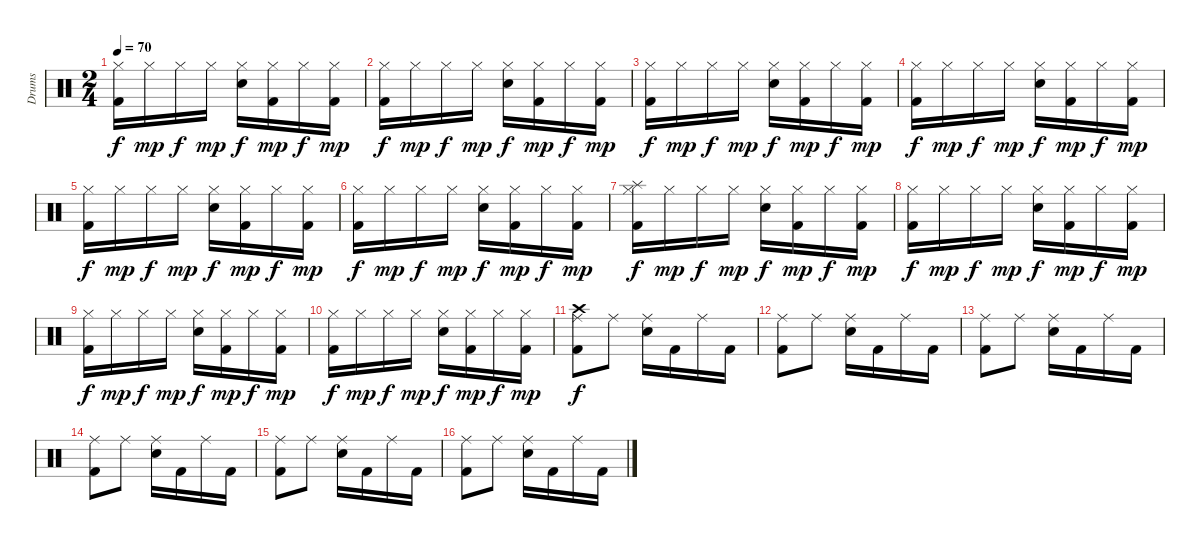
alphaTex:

\track ("Drums" "Drums") {instrument percussion}
\staff {score}
\articulation defaults
\ts (2 4)
\tempo 70
\clef neutral
\ks c
("Hi-Hat (closed)" "Kick (hit) 2").16{dy f} "Hi-Hat (closed)".16{dy mp} "Hi-Hat (closed)".16{dy f} "Hi-Hat (closed)".16{dy mp} ("Hi-Hat (closed)" "Electric Snare (hit)").16{dy f} ("Hi-Hat (closed)" "Kick (hit) 2").16{dy mp} "Hi-Hat (closed)".16{dy f} ("Hi-Hat (closed)" "Kick (hit) 2").16{dy mp} |
("Hi-Hat (closed)" "Kick (hit) 2").16{dy f} "Hi-Hat (closed)".16{dy mp} "Hi-Hat (closed)".16{dy f} "Hi-Hat (closed)".16{dy mp} ("Hi-Hat (closed)" "Electric Snare (hit)").16{dy f} ("Hi-Hat (closed)" "Kick (hit) 2").16{dy mp} "Hi-Hat (closed)".16{dy f} ("Hi-Hat (closed)" "Kick (hit) 2").16{dy mp} |
("Hi-Hat (closed)" "Kick (hit) 2").16{dy f} "Hi-Hat (closed)".16{dy mp} "Hi-Hat (closed)".16{dy f} "Hi-Hat (closed)".16{dy mp} ("Hi-Hat (closed)" "Electric Snare (hit)").16{dy f} ("Hi-Hat (closed)" "Kick (hit) 2").16{dy mp} "Hi-Hat (closed)".16{dy f} ("Hi-Hat (closed)" "Kick (hit) 2").16{dy mp} |
("Hi-Hat (closed)" "Kick (hit) 2").16{dy f} "Hi-Hat (closed)".16{dy mp} "Hi-Hat (closed)".16{dy f} "Hi-Hat (closed)".16{dy mp} ("Hi-Hat (closed)" "Electric Snare (hit)").16{dy f} ("Hi-Hat (closed)" "Kick (hit) 2").16{dy mp} "Hi-Hat (closed)".16{dy f} ("Hi-Hat (closed)" "Kick (hit) 2").16{dy mp} |
("Hi-Hat (closed)" "Kick (hit) 2").16{dy f} "Hi-Hat (closed)".16{dy mp} "Hi-Hat (closed)".16{dy f} "Hi-Hat (closed)".16{dy mp} ("Hi-Hat (closed)" "Electric Snare (hit)").16{dy f} ("Hi-Hat (closed)" "Kick (hit) 2").16{dy mp} "Hi-Hat (closed)".16{dy f} ("Hi-Hat (closed)" "Kick (hit) 2").16{dy mp} |
("Hi-Hat (closed)" "Kick (hit) 2").16{dy f} "Hi-Hat (closed)".16{dy mp} "Hi-Hat (closed)".16{dy f} "Hi-Hat (closed)".16{dy mp} ("Hi-Hat (closed)" "Electric Snare (hit)").16{dy f} ("Hi-Hat (closed)" "Kick (hit) 2").16{dy mp} "Hi-Hat (closed)".16{dy f} ("Hi-Hat (closed)" "Kick (hit) 2").16{dy mp} |
("Splash (hit)" "Hi-Hat (closed)" "Kick (hit) 2").16{dy f} "Hi-Hat (closed)".16{dy mp} "Hi-Hat (closed)".16{dy f} "Hi-Hat (closed)".16{dy mp} ("Hi-Hat (closed)" "Electric Snare (hit)").16{dy f} ("Hi-Hat (closed)" "Kick (hit) 2").16{dy mp} "Hi-Hat (closed)".16{dy f} ("Hi-Hat (closed)" "Kick (hit) 2").16{dy mp} |
("Hi-Hat (closed)" "Kick (hit) 2").16{dy f} "Hi-Hat (closed)".16{dy mp} "Hi-Hat (closed)".16{dy f} "Hi-Hat (closed)".16{dy mp} ("Hi-Hat (closed)" "Electric Snare (hit)").16{dy f} ("Hi-Hat (closed)" "Kick (hit) 2").16{dy mp} "Hi-Hat (closed)".16{dy f} ("Hi-Hat (closed)" "Kick (hit) 2").16{dy mp} |
("Hi-Hat (closed)" "Kick (hit) 2").16{dy f} "Hi-Hat (closed)".16{dy mp} "Hi-Hat (closed)".16{dy f} "Hi-Hat (closed)".16{dy mp} ("Hi-Hat (closed)" "Electric Snare (hit)").16{dy f} ("Hi-Hat (closed)" "Kick (hit) 2").16{dy mp} "Hi-Hat (closed)".16{dy f} ("Hi-Hat (closed)" "Kick (hit) 2").16{dy mp} |
("Hi-Hat (closed)" "Kick (hit) 2").16{dy f} "Hi-Hat (closed)".16{dy mp} "Hi-Hat (closed)".16{dy f} "Hi-Hat (closed)".16{dy mp} ("Hi-Hat (closed)" "Electric Snare (hit)").16{dy f} ("Hi-Hat (closed)" "Kick (hit) 2").16{dy mp} "Hi-Hat (closed)".16{dy f} ("Hi-Hat (closed)" "Kick (hit) 2").16{dy mp} |
("Crash high (hit)" "Ride (middle)" "Kick (hit) 2").8{dy f} "Ride (middle)".8 ("Ride (middle)" "Electric Snare (hit)").16 "Kick (hit) 2".16 "Ride (middle)".16 "Kick (hit) 2".16 |
("Ride (middle)" "Kick (hit) 2").8 "Ride (middle)".8 ("Ride (middle)" "Electric Snare (hit)").16 "Kick (hit) 2".16 "Ride (middle)".16 "Kick (hit) 2".16 |
("Ride (middle)" "Kick (hit) 2").8 "Ride (middle)".8 ("Ride (middle)" "Electric Snare (hit)").16 "Kick (hit) 2".16 "Ride (middle)".16 "Kick (hit) 2".16 |
("Ride (middle)" "Kick (hit) 2").8 "Ride (middle)".8 ("Ride (middle)" "Electric Snare (hit)").16 "Kick (hit) 2".16 "Ride (middle)".16 "Kick (hit) 2".16 |
("Ride (middle)" "Kick (hit) 2").8 "Ride (middle)".8 ("Ride (middle)" "Electric Snare (hit)").16 "Kick (hit) 2".16 "Ride (middle)".16 "Kick (hit) 2".16 |
("Ride (middle)" "Kick (hit) 2").8 "Ride (middle)".8 ("Ride (middle)" "Electric Snare (hit)").16 "Kick (hit) 2".16 "Ride (middle)".16 "Kick (hit) 2".16
